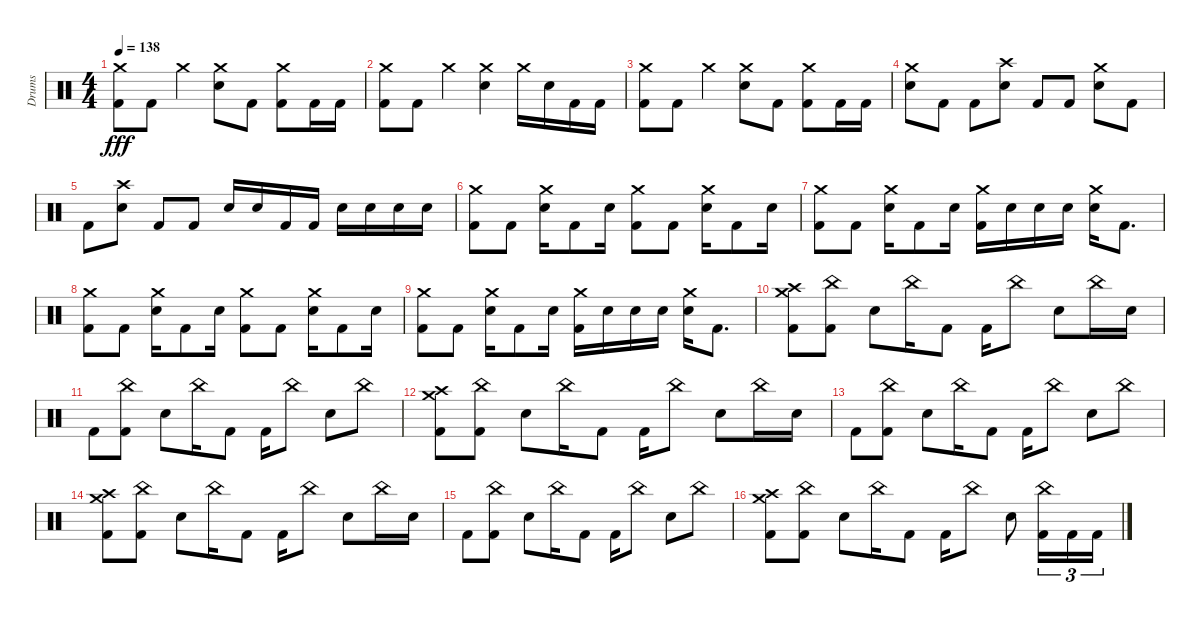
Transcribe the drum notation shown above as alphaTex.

\track ("Drums" "Drums") {instrument percussion}
\staff {score}
\articulation defaults
\ts (4 4)
\tempo 138
\clef neutral
\ks c
("Crash medium (hit)" "Kick (hit) 2").8{dy fff} "Kick (hit) 2".8 "Crash medium (hit)".4 ("Crash medium (hit)" "Electric Snare (hit)").8 "Kick (hit) 2".8 ("Crash medium (hit)" "Kick (hit) 2").8 "Kick (hit) 2".16 "Kick (hit) 2".16 |
("Crash medium (hit)" "Kick (hit) 2").8 "Kick (hit) 2".8 "Crash medium (hit)".4 ("Crash medium (hit)" "Electric Snare (hit)").4 "Crash medium (hit)".16 "Electric Snare (hit)".16 "Kick (hit) 2".16 "Kick (hit) 2".16 |
("Crash medium (hit)" "Kick (hit) 2").8 "Kick (hit) 2".8 "Crash medium (hit)".4 ("Crash medium (hit)" "Electric Snare (hit)").8 "Kick (hit) 2".8 ("Crash medium (hit)" "Kick (hit) 2").8 "Kick (hit) 2".16 "Kick (hit) 2".16 |
("Crash medium (hit)" "Electric Snare (hit)").8 "Kick (hit) 2".8 "Kick (hit) 2".8 ("Crash high (hit)" "Electric Snare (hit)").8 "Kick (hit) 2".8 "Kick (hit) 2".8 ("Crash medium (hit)" "Electric Snare (hit)").8 "Kick (hit) 2".8 |
"Kick (hit) 2".8 ("Crash high (hit)" "Electric Snare (hit)").8 "Kick (hit) 2".8 "Kick (hit) 2".8 "Electric Snare (hit)".16 "Electric Snare (hit)".16 "Kick (hit) 2".16 "Kick (hit) 2".16 "Electric Snare (hit)".16 "Electric Snare (hit)".16 "Electric Snare (hit)".16 "Electric Snare (hit)".16 |
("Crash medium (hit)" "Kick (hit) 2").8 "Kick (hit) 2".8 ("Crash medium (hit)" "Electric Snare (hit)").16 "Kick (hit) 2".8 "Electric Snare (hit)".16 ("Crash medium (hit)" "Kick (hit) 2").8 "Kick (hit) 2".8 ("Crash medium (hit)" "Electric Snare (hit)").16 "Kick (hit) 2".8 "Electric Snare (hit)".16 |
("Crash medium (hit)" "Kick (hit) 2").8 "Kick (hit) 2".8 ("Crash medium (hit)" "Electric Snare (hit)").16 "Kick (hit) 2".8 "Electric Snare (hit)".16 ("Crash medium (hit)" "Kick (hit) 2").16 "Electric Snare (hit)".16 "Electric Snare (hit)".16 "Electric Snare (hit)".16 ("Crash medium (hit)" "Electric Snare (hit)").16 "Kick (hit) 2".8{d} |
("Crash medium (hit)" "Kick (hit) 2").8 "Kick (hit) 2".8 ("Crash medium (hit)" "Electric Snare (hit)").16 "Kick (hit) 2".8 "Electric Snare (hit)".16 ("Crash medium (hit)" "Kick (hit) 2").8 "Kick (hit) 2".8 ("Crash medium (hit)" "Electric Snare (hit)").16 "Kick (hit) 2".8 "Electric Snare (hit)".16 |
("Crash medium (hit)" "Kick (hit) 2").8 "Kick (hit) 2".8 ("Crash medium (hit)" "Electric Snare (hit)").16 "Kick (hit) 2".8 "Electric Snare (hit)".16 ("Crash medium (hit)" "Kick (hit) 2").16 "Electric Snare (hit)".16 "Electric Snare (hit)".16 "Electric Snare (hit)".16 ("Crash medium (hit)" "Electric Snare (hit)").16 "Kick (hit) 2".8{d} |
("Crash medium (hit)" "Crash high (hit)" "Kick (hit) 2").8 ("China (hit)" "Kick (hit) 2").8 "Electric Snare (hit)".8 "China (hit)".16 "Kick (hit) 2".8 "Kick (hit) 2".16 "China (hit)".8 "Electric Snare (hit)".8 "China (hit)".16 "Electric Snare (hit)".16 |
"Kick (hit) 2".8 ("China (hit)" "Kick (hit) 2").8 "Electric Snare (hit)".8 "China (hit)".16 "Kick (hit) 2".8 "Kick (hit) 2".16 "China (hit)".8 "Electric Snare (hit)".8 "China (hit)".8 |
("Crash medium (hit)" "Crash high (hit)" "Kick (hit) 2").8 ("China (hit)" "Kick (hit) 2").8 "Electric Snare (hit)".8 "China (hit)".16 "Kick (hit) 2".8 "Kick (hit) 2".16 "China (hit)".8 "Electric Snare (hit)".8 "China (hit)".16 "Electric Snare (hit)".16 |
"Kick (hit) 2".8 ("China (hit)" "Kick (hit) 2").8 "Electric Snare (hit)".8 "China (hit)".16 "Kick (hit) 2".8 "Kick (hit) 2".16 "China (hit)".8 "Electric Snare (hit)".8 "China (hit)".8 |
("Crash medium (hit)" "Crash high (hit)" "Kick (hit) 2").8 ("China (hit)" "Kick (hit) 2").8 "Electric Snare (hit)".8 "China (hit)".16 "Kick (hit) 2".8 "Kick (hit) 2".16 "China (hit)".8 "Electric Snare (hit)".8 "China (hit)".16 "Electric Snare (hit)".16 |
"Kick (hit) 2".8 ("China (hit)" "Kick (hit) 2").8 "Electric Snare (hit)".8 "China (hit)".16 "Kick (hit) 2".8 "Kick (hit) 2".16 "China (hit)".8 "Electric Snare (hit)".8 "China (hit)".8 |
("Crash medium (hit)" "Crash high (hit)" "Kick (hit) 2").8 ("China (hit)" "Kick (hit) 2").8 "Electric Snare (hit)".8 "China (hit)".16 "Kick (hit) 2".8 "Kick (hit) 2".16 "China (hit)".8 "Electric Snare (hit)".8 ("China (hit)" "Kick (hit) 2").16{tu (3 2)} "Kick (hit) 2".16{tu (3 2)} "Kick (hit) 2".16{tu (3 2)}
